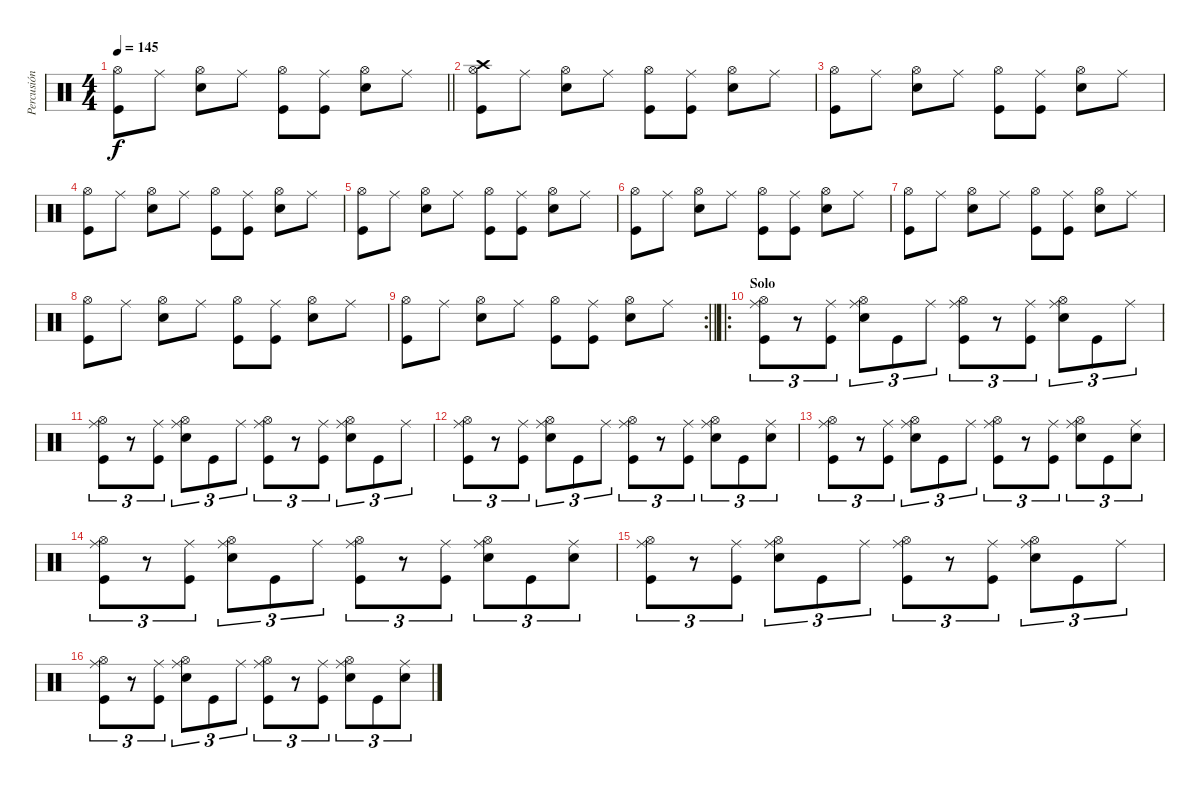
\track ("Percusión" "Percusión") {instrument percussion}
\staff {score}
\articulation defaults
\ts (4 4)
\tempo 145
\clef neutral
\barLineRight lightlight
\ks c
("Hi-Hat (open)" "Kick (hit)").8{dy f} "Ride (middle)".8 ("Hi-Hat (open)" "Electric Snare (hit)").8 "Ride (middle)".8 ("Hi-Hat (open)" "Kick (hit)").8 ("Ride (middle)" "Kick (hit)").8 ("Hi-Hat (open)" "Electric Snare (hit)").8 "Ride (middle)".8 |
\section ("" "")
("Crash high (hit)" "Hi-Hat (open)" "Kick (hit)").8 "Ride (middle)".8 ("Hi-Hat (open)" "Electric Snare (hit)").8 "Ride (middle)".8 ("Hi-Hat (open)" "Kick (hit)").8 ("Ride (middle)" "Kick (hit)").8 ("Hi-Hat (open)" "Electric Snare (hit)").8 "Ride (middle)".8 |
("Hi-Hat (open)" "Kick (hit)").8 "Ride (middle)".8 ("Hi-Hat (open)" "Electric Snare (hit)").8 "Ride (middle)".8 ("Hi-Hat (open)" "Kick (hit)").8 ("Ride (middle)" "Kick (hit)").8 ("Hi-Hat (open)" "Electric Snare (hit)").8 "Ride (middle)".8 |
("Hi-Hat (open)" "Kick (hit)").8 "Ride (middle)".8 ("Hi-Hat (open)" "Electric Snare (hit)").8 "Ride (middle)".8 ("Hi-Hat (open)" "Kick (hit)").8 ("Ride (middle)" "Kick (hit)").8 ("Hi-Hat (open)" "Electric Snare (hit)").8 "Ride (middle)".8 |
("Hi-Hat (open)" "Kick (hit)").8 "Ride (middle)".8 ("Hi-Hat (open)" "Electric Snare (hit)").8 "Ride (middle)".8 ("Hi-Hat (open)" "Kick (hit)").8 ("Ride (middle)" "Kick (hit)").8 ("Hi-Hat (open)" "Electric Snare (hit)").8 "Ride (middle)".8 |
("Hi-Hat (open)" "Kick (hit)").8 "Ride (middle)".8 ("Hi-Hat (open)" "Electric Snare (hit)").8 "Ride (middle)".8 ("Hi-Hat (open)" "Kick (hit)").8 ("Ride (middle)" "Kick (hit)").8 ("Hi-Hat (open)" "Electric Snare (hit)").8 "Ride (middle)".8 |
("Hi-Hat (open)" "Kick (hit)").8 "Ride (middle)".8 ("Hi-Hat (open)" "Electric Snare (hit)").8 "Ride (middle)".8 ("Hi-Hat (open)" "Kick (hit)").8 ("Ride (middle)" "Kick (hit)").8 ("Hi-Hat (open)" "Electric Snare (hit)").8 "Ride (middle)".8 |
("Hi-Hat (open)" "Kick (hit)").8 "Ride (middle)".8 ("Hi-Hat (open)" "Electric Snare (hit)").8 "Ride (middle)".8 ("Hi-Hat (open)" "Kick (hit)").8 ("Ride (middle)" "Kick (hit)").8 ("Hi-Hat (open)" "Electric Snare (hit)").8 "Ride (middle)".8 |
\rc 2
\barLineRight lightlight
("Hi-Hat (open)" "Kick (hit)").8 "Ride (middle)".8 ("Hi-Hat (open)" "Electric Snare (hit)").8 "Ride (middle)".8 ("Hi-Hat (open)" "Kick (hit)").8 ("Ride (middle)" "Kick (hit)").8 ("Hi-Hat (open)" "Electric Snare (hit)").8 "Ride (middle)".8 |
\ro
\section ("" "Solo")
("Ride (middle)" "Hi-Hat (open)" "Kick (hit)").8{tu (3 2)} r.8{tu (3 2)} ("Ride (middle)" "Kick (hit)").8{tu (3 2)} ("Ride (middle)" "Hi-Hat (open)" "Electric Snare (hit)").8{tu (3 2)} "Kick (hit)".8{tu (3 2)} "Ride (middle)".8{tu (3 2)} ("Ride (middle)" "Hi-Hat (open)" "Kick (hit)").8{tu (3 2)} r.8{tu (3 2)} ("Ride (middle)" "Kick (hit)").8{tu (3 2)} ("Ride (middle)" "Hi-Hat (open)" "Electric Snare (hit)").8{tu (3 2)} "Kick (hit)".8{tu (3 2)} "Ride (middle)".8{tu (3 2)} |
("Ride (middle)" "Hi-Hat (open)" "Kick (hit)").8{tu (3 2)} r.8{tu (3 2)} ("Ride (middle)" "Kick (hit)").8{tu (3 2)} ("Ride (middle)" "Hi-Hat (open)" "Electric Snare (hit)").8{tu (3 2)} "Kick (hit)".8{tu (3 2)} "Ride (middle)".8{tu (3 2)} ("Ride (middle)" "Hi-Hat (open)" "Kick (hit)").8{tu (3 2)} r.8{tu (3 2)} ("Ride (middle)" "Kick (hit)").8{tu (3 2)} ("Ride (middle)" "Hi-Hat (open)" "Electric Snare (hit)").8{tu (3 2)} "Kick (hit)".8{tu (3 2)} "Ride (middle)".8{tu (3 2)} |
("Ride (middle)" "Hi-Hat (open)" "Kick (hit)").8{tu (3 2)} r.8{tu (3 2)} ("Ride (middle)" "Kick (hit)").8{tu (3 2)} ("Ride (middle)" "Hi-Hat (open)" "Electric Snare (hit)").8{tu (3 2)} "Kick (hit)".8{tu (3 2)} "Ride (middle)".8{tu (3 2)} ("Ride (middle)" "Hi-Hat (open)" "Kick (hit)").8{tu (3 2)} r.8{tu (3 2)} ("Ride (middle)" "Kick (hit)").8{tu (3 2)} ("Ride (middle)" "Hi-Hat (open)" "Electric Snare (hit)").8{tu (3 2)} "Kick (hit)".8{tu (3 2)} ("Ride (middle)" "Electric Snare (hit)").8{tu (3 2)} |
("Ride (middle)" "Hi-Hat (open)" "Kick (hit)").8{tu (3 2)} r.8{tu (3 2)} ("Ride (middle)" "Kick (hit)").8{tu (3 2)} ("Ride (middle)" "Hi-Hat (open)" "Electric Snare (hit)").8{tu (3 2)} "Kick (hit)".8{tu (3 2)} "Ride (middle)".8{tu (3 2)} ("Ride (middle)" "Hi-Hat (open)" "Kick (hit)").8{tu (3 2)} r.8{tu (3 2)} ("Ride (middle)" "Kick (hit)").8{tu (3 2)} ("Ride (middle)" "Hi-Hat (open)" "Electric Snare (hit)").8{tu (3 2)} "Kick (hit)".8{tu (3 2)} ("Ride (middle)" "Electric Snare (hit)").8{tu (3 2)} |
("Ride (middle)" "Hi-Hat (open)" "Kick (hit)").8{tu (3 2)} r.8{tu (3 2)} ("Ride (middle)" "Kick (hit)").8{tu (3 2)} ("Ride (middle)" "Hi-Hat (open)" "Electric Snare (hit)").8{tu (3 2)} "Kick (hit)".8{tu (3 2)} "Ride (middle)".8{tu (3 2)} ("Ride (middle)" "Hi-Hat (open)" "Kick (hit)").8{tu (3 2)} r.8{tu (3 2)} ("Ride (middle)" "Kick (hit)").8{tu (3 2)} ("Ride (middle)" "Hi-Hat (open)" "Electric Snare (hit)").8{tu (3 2)} "Kick (hit)".8{tu (3 2)} ("Ride (middle)" "Electric Snare (hit)").8{tu (3 2)} |
("Ride (middle)" "Hi-Hat (open)" "Kick (hit)").8{tu (3 2)} r.8{tu (3 2)} ("Ride (middle)" "Kick (hit)").8{tu (3 2)} ("Ride (middle)" "Hi-Hat (open)" "Electric Snare (hit)").8{tu (3 2)} "Kick (hit)".8{tu (3 2)} "Ride (middle)".8{tu (3 2)} ("Ride (middle)" "Hi-Hat (open)" "Kick (hit)").8{tu (3 2)} r.8{tu (3 2)} ("Ride (middle)" "Kick (hit)").8{tu (3 2)} ("Ride (middle)" "Hi-Hat (open)" "Electric Snare (hit)").8{tu (3 2)} "Kick (hit)".8{tu (3 2)} "Ride (middle)".8{tu (3 2)} |
("Ride (middle)" "Hi-Hat (open)" "Kick (hit)").8{tu (3 2)} r.8{tu (3 2)} ("Ride (middle)" "Kick (hit)").8{tu (3 2)} ("Ride (middle)" "Hi-Hat (open)" "Electric Snare (hit)").8{tu (3 2)} "Kick (hit)".8{tu (3 2)} "Ride (middle)".8{tu (3 2)} ("Ride (middle)" "Hi-Hat (open)" "Kick (hit)").8{tu (3 2)} r.8{tu (3 2)} ("Ride (middle)" "Kick (hit)").8{tu (3 2)} ("Ride (middle)" "Hi-Hat (open)" "Electric Snare (hit)").8{tu (3 2)} "Kick (hit)".8{tu (3 2)} ("Ride (middle)" "Electric Snare (hit)").8{tu (3 2)}
